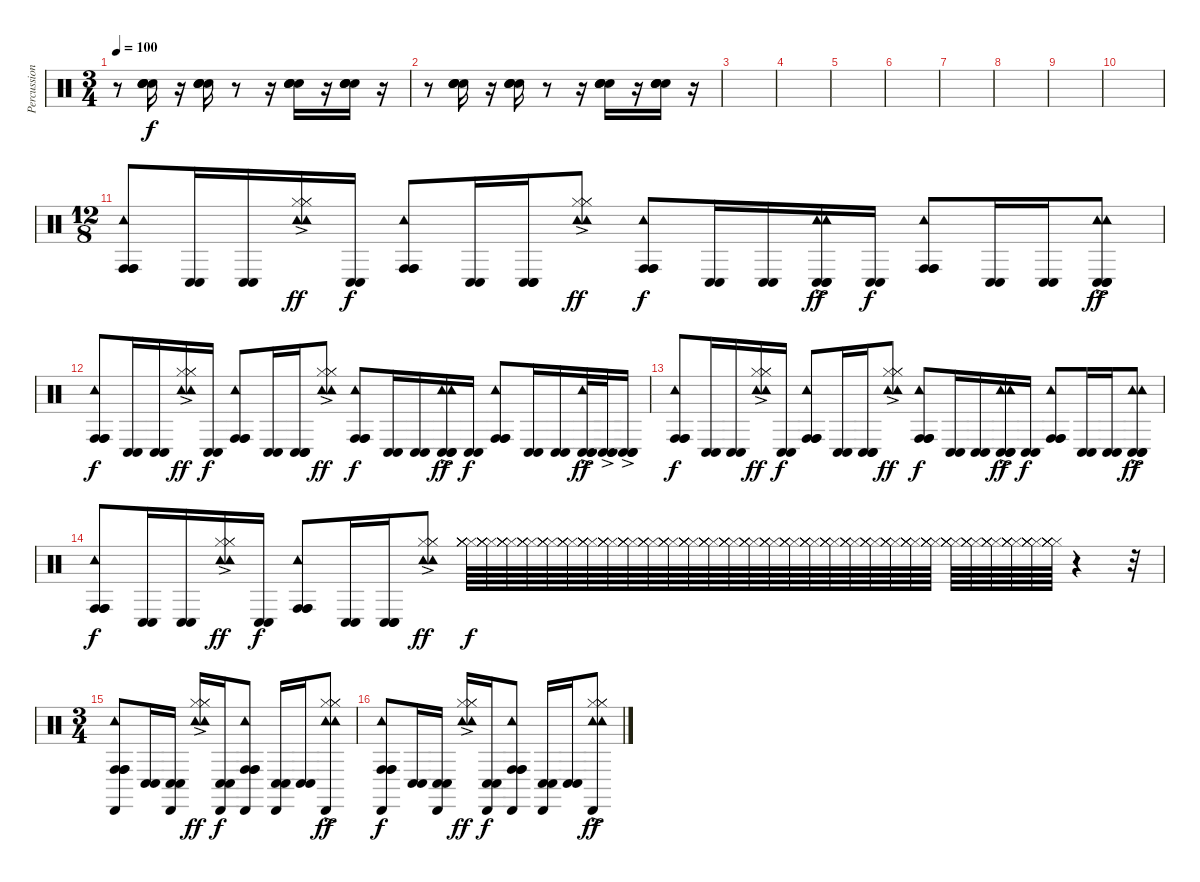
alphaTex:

\track ("Percussion" "Percussion") {instrument percussion}
\staff {score}
\articulation defaults
\ts (3 4)
\tempo 100
\clef neutral
\ks c
r.8{dy f} ("Hand Clap (hit)" "Hand Clap (hit)" "Hand Clap (hit)" "Hand Clap (hit)").16 r.16 ("Hand Clap (hit)" "Hand Clap (hit)" "Hand Clap (hit)" "Hand Clap (hit)").16 r.8 r.16 ("Hand Clap (hit)" "Hand Clap (hit)" "Hand Clap (hit)" "Hand Clap (hit)").16 r.16 ("Hand Clap (hit)" "Hand Clap (hit)" "Hand Clap (hit)" "Hand Clap (hit)").16 r.16 |
r.8 ("Hand Clap (hit)" "Hand Clap (hit)" "Hand Clap (hit)" "Hand Clap (hit)").16 r.16 ("Hand Clap (hit)" "Hand Clap (hit)" "Hand Clap (hit)" "Hand Clap (hit)").16 r.8 r.16 ("Hand Clap (hit)" "Hand Clap (hit)" "Hand Clap (hit)" "Hand Clap (hit)").16 r.16 ("Hand Clap (hit)" "Hand Clap (hit)" "Hand Clap (hit)" "Hand Clap (hit)").16 r.16 |
|
|
|
|
|
|
|
|
\ts (12 8)
("Tambourine (hit)" "Conga high (hit)" "Conga high (hit)" "Conga high (hit)").8 ("Conga low (hit)" "Conga low (hit)").16 ("Conga low (hit)" "Conga low (hit)").16 ("Tambourine (hit)" "Tambourine (hit)" "Hi-Hat (closed)" "Hi-Hat (closed)" "Hi-Hat (closed)"{ac}).16{dy ff} ("Conga low (hit)" "Conga low (hit)").16{dy f} ("Tambourine (hit)" "Conga high (hit)" "Conga high (hit)" "Conga high (hit)").8 ("Conga low (hit)" "Conga low (hit)").16 ("Conga low (hit)" "Conga low (hit)" "Conga low (hit)").16 ("Tambourine (hit)" "Tambourine (hit)" "Hi-Hat (closed)" "Hi-Hat (closed)" "Hi-Hat (closed)"{ac}).8{dy ff} ("Tambourine (hit)" "Conga high (hit)" "Conga high (hit)" "Conga high (hit)").8{dy f} ("Conga low (hit)" "Conga low (hit)").16 ("Conga low (hit)" "Conga low (hit)").16 ("Tambourine (hit)" "Tambourine (hit)" "Conga low (hit)" "Conga low (hit)" "Conga low (hit)"{ac}).16{dy ff} ("Conga low (hit)" "Conga low (hit)").16{dy f} ("Tambourine (hit)" "Conga high (hit)" "Conga high (hit)" "Conga high (hit)").8 ("Conga low (hit)" "Conga low (hit)").16 ("Conga low (hit)" "Conga low (hit)").16 ("Tambourine (hit)" "Tambourine (hit)" "Conga low (hit)" "Conga low (hit)" "Conga low (hit)"{ac}).8{dy ff} |
("Tambourine (hit)" "Conga high (hit)" "Conga high (hit)" "Conga high (hit)").8{dy f} ("Conga low (hit)" "Conga low (hit)").16 ("Conga low (hit)" "Conga low (hit)").16 ("Tambourine (hit)" "Tambourine (hit)" "Hi-Hat (closed)" "Hi-Hat (closed)" "Hi-Hat (closed)"{ac}).16{dy ff} ("Conga low (hit)" "Conga low (hit)").16{dy f} ("Tambourine (hit)" "Conga high (hit)" "Conga high (hit)" "Conga high (hit)").8 ("Conga low (hit)" "Conga low (hit)").16 ("Conga low (hit)" "Conga low (hit)" "Conga low (hit)").16 ("Tambourine (hit)" "Tambourine (hit)" "Hi-Hat (closed)" "Hi-Hat (closed)" "Hi-Hat (closed)"{ac}).8{dy ff} ("Tambourine (hit)" "Conga high (hit)" "Conga high (hit)" "Conga high (hit)").8{dy f} ("Conga low (hit)" "Conga low (hit)").16 ("Conga low (hit)" "Conga low (hit)").16 ("Tambourine (hit)" "Tambourine (hit)" "Conga low (hit)" "Conga low (hit)" "Conga low (hit)"{ac}).16{dy ff} ("Conga low (hit)" "Conga low (hit)").16{dy f} ("Tambourine (hit)" "Conga high (hit)" "Conga high (hit)" "Conga high (hit)").8 ("Conga low (hit)" "Conga low (hit)").16 ("Conga low (hit)" "Conga low (hit)").16 ("Tambourine (hit)" "Conga low (hit)" "Conga low (hit)" "Conga low (hit)"{ac}).32{dy ff} ("Conga low (hit)" "Conga low (hit)" "Conga low (hit)"{ac}).32 ("Conga low (hit)" "Conga low (hit)" "Conga low (hit)"{ac}).16 |
("Tambourine (hit)" "Conga high (hit)" "Conga high (hit)" "Conga high (hit)").8{dy f} ("Conga low (hit)" "Conga low (hit)").16 ("Conga low (hit)" "Conga low (hit)").16 ("Tambourine (hit)" "Tambourine (hit)" "Hi-Hat (closed)" "Hi-Hat (closed)" "Hi-Hat (closed)"{ac}).16{dy ff} ("Conga low (hit)" "Conga low (hit)").16{dy f} ("Tambourine (hit)" "Conga high (hit)" "Conga high (hit)" "Conga high (hit)").8 ("Conga low (hit)" "Conga low (hit)").16 ("Conga low (hit)" "Conga low (hit)" "Conga low (hit)").16 ("Tambourine (hit)" "Tambourine (hit)" "Hi-Hat (closed)" "Hi-Hat (closed)" "Hi-Hat (closed)"{ac}).8{dy ff} ("Tambourine (hit)" "Conga high (hit)" "Conga high (hit)" "Conga high (hit)").8{dy f} ("Conga low (hit)" "Conga low (hit)").16 ("Conga low (hit)" "Conga low (hit)").16 ("Tambourine (hit)" "Tambourine (hit)" "Conga low (hit)" "Conga low (hit)" "Conga low (hit)"{ac}).16{dy ff} ("Conga low (hit)" "Conga low (hit)").16{dy f} ("Tambourine (hit)" "Conga high (hit)" "Conga high (hit)" "Conga high (hit)").8 ("Conga low (hit)" "Conga low (hit)").16 ("Conga low (hit)" "Conga low (hit)").16 ("Tambourine (hit)" "Tambourine (hit)" "Conga low (hit)" "Conga low (hit)" "Conga low (hit)"{ac}).8{dy ff} |
("Tambourine (hit)" "Conga high (hit)" "Conga high (hit)" "Conga high (hit)").8{dy f} ("Conga low (hit)" "Conga low (hit)").16 ("Conga low (hit)" "Conga low (hit)").16 ("Tambourine (hit)" "Tambourine (hit)" "Hi-Hat (closed)" "Hi-Hat (closed)" "Hi-Hat (closed)"{ac}).16{dy ff} ("Conga low (hit)" "Conga low (hit)").16{dy f} ("Tambourine (hit)" "Conga high (hit)" "Conga high (hit)" "Conga high (hit)").8 ("Conga low (hit)" "Conga low (hit)").16 ("Conga low (hit)" "Conga low (hit)" "Conga low (hit)").16 ("Tambourine (hit)" "Tambourine (hit)" "Hi-Hat (closed)" "Hi-Hat (closed)" "Hi-Hat (closed)"{ac}).8{dy ff} ("Hi-Hat (closed)" "Hi-Hat (closed)" "Hi-Hat (closed)" "Hi-Hat (closed)" "Hi-Hat (closed)").64{dy f} ("Hi-Hat (closed)" "Hi-Hat (closed)" "Hi-Hat (closed)" "Hi-Hat (closed)" "Hi-Hat (closed)").64 ("Hi-Hat (closed)" "Hi-Hat (closed)" "Hi-Hat (closed)" "Hi-Hat (closed)" "Hi-Hat (closed)").64 ("Hi-Hat (closed)" "Hi-Hat (closed)" "Hi-Hat (closed)" "Hi-Hat (closed)" "Hi-Hat (closed)").64 ("Hi-Hat (closed)" "Hi-Hat (closed)" "Hi-Hat (closed)" "Hi-Hat (closed)" "Hi-Hat (closed)").64 ("Hi-Hat (closed)" "Hi-Hat (closed)" "Hi-Hat (closed)" "Hi-Hat (closed)" "Hi-Hat (closed)").64 ("Hi-Hat (closed)" "Hi-Hat (closed)" "Hi-Hat (closed)" "Hi-Hat (closed)" "Hi-Hat (closed)").64{volume 12} ("Hi-Hat (closed)" "Hi-Hat (closed)" "Hi-Hat (closed)" "Hi-Hat (closed)" "Hi-Hat (closed)").64 ("Hi-Hat (closed)" "Hi-Hat (closed)" "Hi-Hat (closed)" "Hi-Hat (closed)" "Hi-Hat (closed)").64{volume 10} ("Hi-Hat (closed)" "Hi-Hat (closed)" "Hi-Hat (closed)" "Hi-Hat (closed)" "Hi-Hat (closed)").64 ("Hi-Hat (closed)" "Hi-Hat (closed)" "Hi-Hat (closed)" "Hi-Hat (closed)" "Hi-Hat (closed)").64 ("Hi-Hat (closed)" "Hi-Hat (closed)" "Hi-Hat (closed)" "Hi-Hat (closed)" "Hi-Hat (closed)").64{volume 9} ("Hi-Hat (closed)" "Hi-Hat (closed)" "Hi-Hat (closed)" "Hi-Hat (closed)" "Hi-Hat (closed)").64 ("Hi-Hat (closed)" "Hi-Hat (closed)" "Hi-Hat (closed)" "Hi-Hat (closed)" "Hi-Hat (closed)").64 ("Hi-Hat (closed)" "Hi-Hat (closed)" "Hi-Hat (closed)" "Hi-Hat (closed)" "Hi-Hat (closed)").64{volume 8} ("Hi-Hat (closed)" "Hi-Hat (closed)" "Hi-Hat (closed)" "Hi-Hat (closed)" "Hi-Hat (closed)").64 ("Hi-Hat (closed)" "Hi-Hat (closed)" "Hi-Hat (closed)" "Hi-Hat (closed)" "Hi-Hat (closed)").64 ("Hi-Hat (closed)" "Hi-Hat (closed)" "Hi-Hat (closed)" "Hi-Hat (closed)" "Hi-Hat (closed)").64{volume 7} ("Hi-Hat (closed)" "Hi-Hat (closed)" "Hi-Hat (closed)" "Hi-Hat (closed)" "Hi-Hat (closed)").64 ("Hi-Hat (closed)" "Hi-Hat (closed)" "Hi-Hat (closed)" "Hi-Hat (closed)" "Hi-Hat (closed)").64 ("Hi-Hat (closed)" "Hi-Hat (closed)" "Hi-Hat (closed)" "Hi-Hat (closed)" "Hi-Hat (closed)").64{volume 6} ("Hi-Hat (closed)" "Hi-Hat (closed)" "Hi-Hat (closed)" "Hi-Hat (closed)" "Hi-Hat (closed)").64 ("Hi-Hat (closed)" "Hi-Hat (closed)" "Hi-Hat (closed)" "Hi-Hat (closed)" "Hi-Hat (closed)").64 ("Hi-Hat (closed)" "Hi-Hat (closed)" "Hi-Hat (closed)" "Hi-Hat (closed)" "Hi-Hat (closed)").64{volume 5} ("Hi-Hat (closed)" "Hi-Hat (closed)" "Hi-Hat (closed)" "Hi-Hat (closed)" "Hi-Hat (closed)").64 ("Hi-Hat (closed)" "Hi-Hat (closed)" "Hi-Hat (closed)" "Hi-Hat (closed)" "Hi-Hat (closed)").64 ("Hi-Hat (closed)" "Hi-Hat (closed)" "Hi-Hat (closed)" "Hi-Hat (closed)" "Hi-Hat (closed)").64{volume 4} ("Hi-Hat (closed)" "Hi-Hat (closed)" "Hi-Hat (closed)" "Hi-Hat (closed)" "Hi-Hat (closed)").64 ("Hi-Hat (closed)" "Hi-Hat (closed)" "Hi-Hat (closed)" "Hi-Hat (closed)" "Hi-Hat (closed)").64 ("Hi-Hat (closed)" "Hi-Hat (closed)" "Hi-Hat (closed)" "Hi-Hat (closed)" "Hi-Hat (closed)").64{volume 2} r.4 r.32 |
\ts (3 4)
("Tambourine (hit)" "Conga high (hit)" "Conga high (hit)" "Conga high (hit)" "Cabasa (hit)").8{volume 13} ("Conga low (hit)" "Conga low (hit)").16 ("Conga low (hit)" "Conga low (hit)" "Cabasa (hit)").16 ("Tambourine (hit)" "Tambourine (hit)" "Hi-Hat (closed)" "Hi-Hat (closed)" "Hi-Hat (closed)"{ac}).16{dy ff} ("Conga low (hit)" "Conga low (hit)" "Cabasa (hit)").16{dy f} ("Tambourine (hit)" "Conga high (hit)" "Conga high (hit)" "Conga high (hit)" "Cabasa (hit)").8 ("Conga low (hit)" "Conga low (hit)" "Cabasa (hit)").16 ("Conga low (hit)" "Conga low (hit)").16 ("Tambourine (hit)" "Tambourine (hit)" "Hi-Hat (closed)" "Hi-Hat (closed)" "Hi-Hat (closed)"{ac} "Cabasa (hit)").8{dy ff} |
("Tambourine (hit)" "Conga high (hit)" "Conga high (hit)" "Conga high (hit)" "Cabasa (hit)").8{dy f} ("Conga low (hit)" "Conga low (hit)").16 ("Conga low (hit)" "Conga low (hit)" "Cabasa (hit)").16 ("Tambourine (hit)" "Tambourine (hit)" "Hi-Hat (closed)" "Hi-Hat (closed)" "Hi-Hat (closed)"{ac}).16{dy ff} ("Conga low (hit)" "Conga low (hit)" "Cabasa (hit)").16{dy f} ("Tambourine (hit)" "Conga high (hit)" "Conga high (hit)" "Conga high (hit)" "Cabasa (hit)").8 ("Conga low (hit)" "Conga low (hit)" "Cabasa (hit)").16 ("Conga low (hit)" "Conga low (hit)").16 ("Tambourine (hit)" "Tambourine (hit)" "Hi-Hat (closed)" "Hi-Hat (closed)" "Hi-Hat (closed)"{ac} "Cabasa (hit)").8{dy ff}
